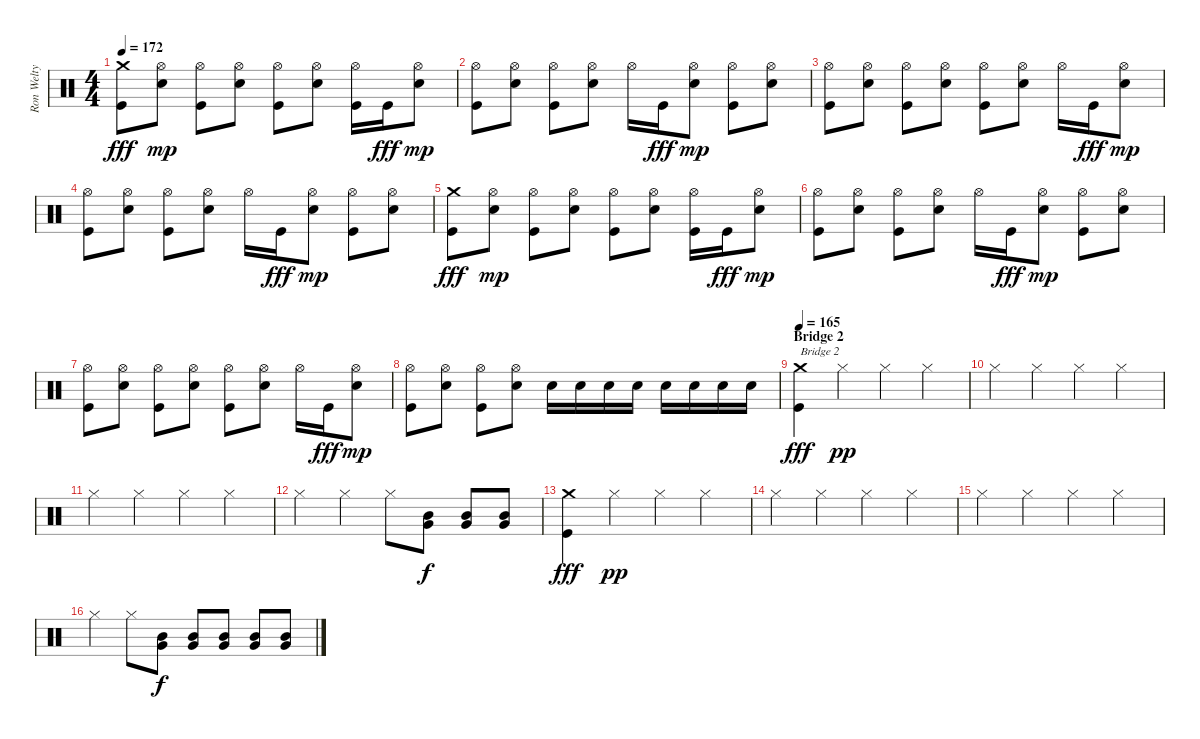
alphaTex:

\track ("Ron Welty (John Wnek's tab)" "Ron Welty ") {instrument percussion}
\staff {score}
\articulation defaults
\ts (4 4)
\tempo 172
\clef neutral
\ks c
("Crash medium (hit)" "Kick (hit)").8{dy fff} ("Snare (hit) 2" "Hi-Hat (open)").8{dy mp} ("Kick (hit)" "Hi-Hat (open)").8 ("Snare (hit) 2" "Hi-Hat (open)").8 ("Kick (hit)" "Hi-Hat (open)").8 ("Snare (hit) 2" "Hi-Hat (open)").8 ("Kick (hit)" "Hi-Hat (open)").16 "Kick (hit)".16{dy fff} ("Snare (hit) 2" "Hi-Hat (open)").8{dy mp} |
("Kick (hit)" "Hi-Hat (open)").8 ("Snare (hit) 2" "Hi-Hat (open)").8 ("Kick (hit)" "Hi-Hat (open)").8 ("Snare (hit) 2" "Hi-Hat (open)").8 "Hi-Hat (open)".16 "Kick (hit)".16{dy fff} ("Snare (hit) 2" "Hi-Hat (open)").8{dy mp} ("Kick (hit)" "Hi-Hat (open)").8 ("Snare (hit) 2" "Hi-Hat (open)").8 |
("Kick (hit)" "Hi-Hat (open)").8 ("Snare (hit) 2" "Hi-Hat (open)").8 ("Kick (hit)" "Hi-Hat (open)").8 ("Snare (hit) 2" "Hi-Hat (open)").8 ("Kick (hit)" "Hi-Hat (open)").8 ("Snare (hit) 2" "Hi-Hat (open)").8 "Hi-Hat (open)".16 "Kick (hit)".16{dy fff} ("Snare (hit) 2" "Hi-Hat (open)").8{dy mp} |
("Kick (hit)" "Hi-Hat (open)").8 ("Snare (hit) 2" "Hi-Hat (open)").8 ("Kick (hit)" "Hi-Hat (open)").8 ("Snare (hit) 2" "Hi-Hat (open)").8 "Hi-Hat (open)".16 "Kick (hit)".16{dy fff} ("Snare (hit) 2" "Hi-Hat (open)").8{dy mp} ("Kick (hit)" "Hi-Hat (open)").8 ("Snare (hit) 2" "Hi-Hat (open)").8 |
("Crash medium (hit)" "Kick (hit)").8{dy fff} ("Snare (hit) 2" "Hi-Hat (open)").8{dy mp} ("Kick (hit)" "Hi-Hat (open)").8 ("Snare (hit) 2" "Hi-Hat (open)").8 ("Kick (hit)" "Hi-Hat (open)").8 ("Snare (hit) 2" "Hi-Hat (open)").8 ("Kick (hit)" "Hi-Hat (open)").16 "Kick (hit)".16{dy fff} ("Snare (hit) 2" "Hi-Hat (open)").8{dy mp} |
("Kick (hit)" "Hi-Hat (open)").8 ("Snare (hit) 2" "Hi-Hat (open)").8 ("Kick (hit)" "Hi-Hat (open)").8 ("Snare (hit) 2" "Hi-Hat (open)").8 "Hi-Hat (open)".16 "Kick (hit)".16{dy fff} ("Snare (hit) 2" "Hi-Hat (open)").8{dy mp} ("Kick (hit)" "Hi-Hat (open)").8 ("Snare (hit) 2" "Hi-Hat (open)").8 |
("Kick (hit)" "Hi-Hat (open)").8 ("Snare (hit) 2" "Hi-Hat (open)").8 ("Kick (hit)" "Hi-Hat (open)").8 ("Snare (hit) 2" "Hi-Hat (open)").8 ("Kick (hit)" "Hi-Hat (open)").8 ("Snare (hit) 2" "Hi-Hat (open)").8 "Hi-Hat (open)".16 "Kick (hit)".16{dy fff} ("Snare (hit) 2" "Hi-Hat (open)").8{dy mp} |
("Kick (hit)" "Hi-Hat (open)").8 ("Snare (hit) 2" "Hi-Hat (open)").8 ("Kick (hit)" "Hi-Hat (open)").8 ("Snare (hit) 2" "Hi-Hat (open)").8 "Snare (hit) 2".16 "Snare (hit) 2".16 "Snare (hit) 2".16 "Snare (hit) 2".16 "Snare (hit) 2".16 "Snare (hit) 2".16 "Snare (hit) 2".16 "Snare (hit) 2".16 |
\section ("" "Bridge 2")
\tempo 165
("Crash medium (hit)" "Kick (hit)").4{txt "Bridge 2" dy fff} "Hi-Hat (closed)".4{dy pp} "Hi-Hat (closed)".4 "Hi-Hat (closed)".4 |
"Hi-Hat (closed)".4 "Hi-Hat (closed)".4 "Hi-Hat (closed)".4 "Hi-Hat (closed)".4 |
"Hi-Hat (closed)".4 "Hi-Hat (closed)".4 "Hi-Hat (closed)".4 "Hi-Hat (closed)".4 |
"Hi-Hat (closed)".4 "Hi-Hat (closed)".4 "Hi-Hat (closed)".8 ("Mid Tom (hit)" "Very Low Tom (hit)").8{dy f} ("Mid Tom (hit)" "Very Low Tom (hit)").8 ("Mid Tom (hit)" "Very Low Tom (hit)").8 |
("Crash medium (hit)" "Kick (hit)").4{dy fff} "Hi-Hat (closed)".4{dy pp} "Hi-Hat (closed)".4 "Hi-Hat (closed)".4 |
"Hi-Hat (closed)".4 "Hi-Hat (closed)".4 "Hi-Hat (closed)".4 "Hi-Hat (closed)".4 |
"Hi-Hat (closed)".4 "Hi-Hat (closed)".4 "Hi-Hat (closed)".4 "Hi-Hat (closed)".4 |
"Hi-Hat (closed)".4 "Hi-Hat (closed)".8 ("Mid Tom (hit)" "Very Low Tom (hit)").8{dy f} ("Mid Tom (hit)" "Very Low Tom (hit)").8 ("Mid Tom (hit)" "Very Low Tom (hit)").8 ("Mid Tom (hit)" "Very Low Tom (hit)").8 ("Mid Tom (hit)" "Very Low Tom (hit)").8
